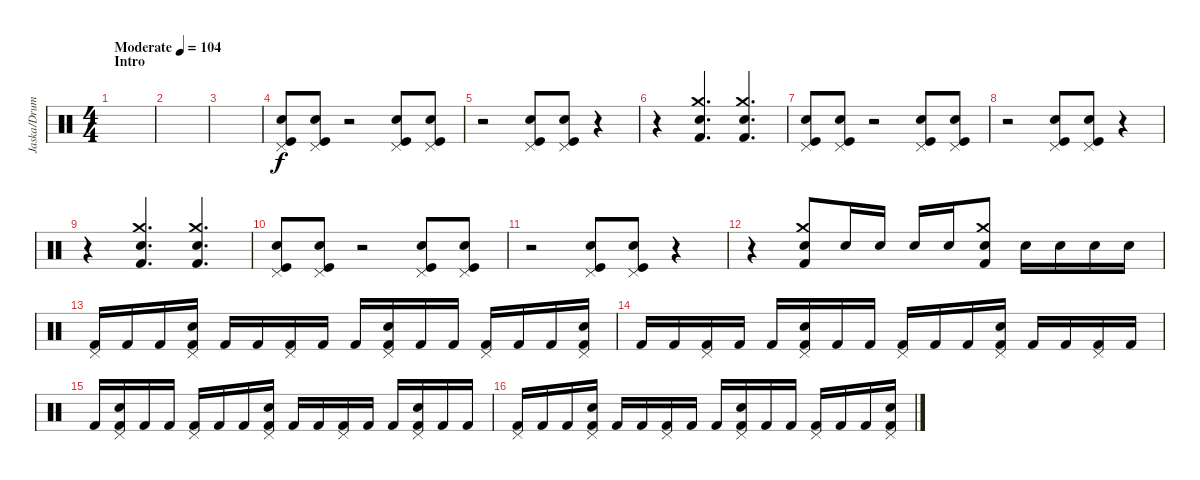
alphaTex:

\track ("Jaska/Drums" "Jaska/Drum") {instrument percussion}
\staff {score}
\articulation defaults
\ts (4 4)
\section ("" "Intro")
\tempo (104 "Moderate")
\clef neutral
\ks c
|
|
|
("Snare (hit) 2" "Pedal Hi-Hat (hit)" "Kick (hit)").8 ("Snare (hit) 2" "Pedal Hi-Hat (hit)" "Kick (hit)").8 r.2 ("Snare (hit) 2" "Pedal Hi-Hat (hit)" "Kick (hit)").8 ("Snare (hit) 2" "Pedal Hi-Hat (hit)" "Kick (hit)").8 |
r.2 ("Snare (hit) 2" "Pedal Hi-Hat (hit)" "Kick (hit)").8 ("Snare (hit) 2" "Pedal Hi-Hat (hit)" "Kick (hit)").8 r.4 |
r.4 ("Snare (hit) 2" "Crash medium (hit)" "Kick (hit) 2").4{d} ("Snare (hit) 2" "Crash medium (hit)" "Kick (hit) 2").4{d} |
("Snare (hit) 2" "Pedal Hi-Hat (hit)" "Kick (hit)").8 ("Snare (hit) 2" "Pedal Hi-Hat (hit)" "Kick (hit)").8 r.2 ("Snare (hit) 2" "Pedal Hi-Hat (hit)" "Kick (hit)").8 ("Snare (hit) 2" "Pedal Hi-Hat (hit)" "Kick (hit)").8 |
r.2 ("Snare (hit) 2" "Pedal Hi-Hat (hit)" "Kick (hit)").8 ("Snare (hit) 2" "Pedal Hi-Hat (hit)" "Kick (hit)").8 r.4 |
r.4 ("Snare (hit) 2" "Crash medium (hit)" "Kick (hit) 2").4{d} ("Snare (hit) 2" "Crash medium (hit)" "Kick (hit) 2").4{d} |
("Snare (hit) 2" "Pedal Hi-Hat (hit)" "Kick (hit)").8 ("Snare (hit) 2" "Pedal Hi-Hat (hit)" "Kick (hit)").8 r.2 ("Snare (hit) 2" "Pedal Hi-Hat (hit)" "Kick (hit)").8 ("Snare (hit) 2" "Pedal Hi-Hat (hit)" "Kick (hit)").8 |
r.2 ("Snare (hit) 2" "Pedal Hi-Hat (hit)" "Kick (hit)").8 ("Snare (hit) 2" "Pedal Hi-Hat (hit)" "Kick (hit)").8 r.4 |
r.4 ("Snare (hit) 2" "Crash medium (hit)" "Kick (hit) 2").8 "Snare (hit) 2".16 "Snare (hit) 2".16 "Snare (hit) 2".16 "Snare (hit) 2".16 ("Snare (hit) 2" "Crash medium (hit)" "Kick (hit) 2").8 "Snare (hit) 2".16 "Snare (hit) 2".16 "Snare (hit) 2".16 "Snare (hit) 2".16 |
("Pedal Hi-Hat (hit)" "Kick (hit) 2").16 "Kick (hit) 2".16 "Kick (hit) 2".16 ("Snare (hit) 2" "Pedal Hi-Hat (hit)" "Kick (hit) 2").16 "Kick (hit) 2".16 "Kick (hit) 2".16 ("Pedal Hi-Hat (hit)" "Kick (hit) 2").16 "Kick (hit) 2".16 "Kick (hit) 2".16 ("Snare (hit) 2" "Pedal Hi-Hat (hit)" "Kick (hit) 2").16 "Kick (hit) 2".16 "Kick (hit) 2".16 ("Pedal Hi-Hat (hit)" "Kick (hit) 2").16 "Kick (hit) 2".16 "Kick (hit) 2".16 ("Snare (hit) 2" "Pedal Hi-Hat (hit)" "Kick (hit) 2").16 |
"Kick (hit) 2".16 "Kick (hit) 2".16 ("Pedal Hi-Hat (hit)" "Kick (hit) 2").16 "Kick (hit) 2".16 "Kick (hit) 2".16 ("Snare (hit) 2" "Pedal Hi-Hat (hit)" "Kick (hit) 2").16 "Kick (hit) 2".16 "Kick (hit) 2".16 ("Pedal Hi-Hat (hit)" "Kick (hit) 2").16 "Kick (hit) 2".16 "Kick (hit) 2".16 ("Snare (hit) 2" "Pedal Hi-Hat (hit)" "Kick (hit) 2").16 "Kick (hit) 2".16 "Kick (hit) 2".16 ("Pedal Hi-Hat (hit)" "Kick (hit) 2").16 "Kick (hit) 2".16 |
"Kick (hit) 2".16 ("Snare (hit) 2" "Pedal Hi-Hat (hit)" "Kick (hit) 2").16 "Kick (hit) 2".16 "Kick (hit) 2".16 ("Pedal Hi-Hat (hit)" "Kick (hit) 2").16 "Kick (hit) 2".16 "Kick (hit) 2".16 ("Snare (hit) 2" "Pedal Hi-Hat (hit)" "Kick (hit) 2").16 "Kick (hit) 2".16 "Kick (hit) 2".16 ("Pedal Hi-Hat (hit)" "Kick (hit) 2").16 "Kick (hit) 2".16 "Kick (hit) 2".16 ("Snare (hit) 2" "Pedal Hi-Hat (hit)" "Kick (hit) 2").16 "Kick (hit) 2".16 "Kick (hit) 2".16 |
("Pedal Hi-Hat (hit)" "Kick (hit) 2").16 "Kick (hit) 2".16 "Kick (hit) 2".16 ("Snare (hit) 2" "Pedal Hi-Hat (hit)" "Kick (hit) 2").16 "Kick (hit) 2".16 "Kick (hit) 2".16 ("Pedal Hi-Hat (hit)" "Kick (hit) 2").16 "Kick (hit) 2".16 "Kick (hit) 2".16 ("Snare (hit) 2" "Pedal Hi-Hat (hit)" "Kick (hit) 2").16 "Kick (hit) 2".16 "Kick (hit) 2".16 ("Pedal Hi-Hat (hit)" "Kick (hit) 2").16 "Kick (hit) 2".16 "Kick (hit) 2".16 ("Snare (hit) 2" "Pedal Hi-Hat (hit)" "Kick (hit) 2").16
